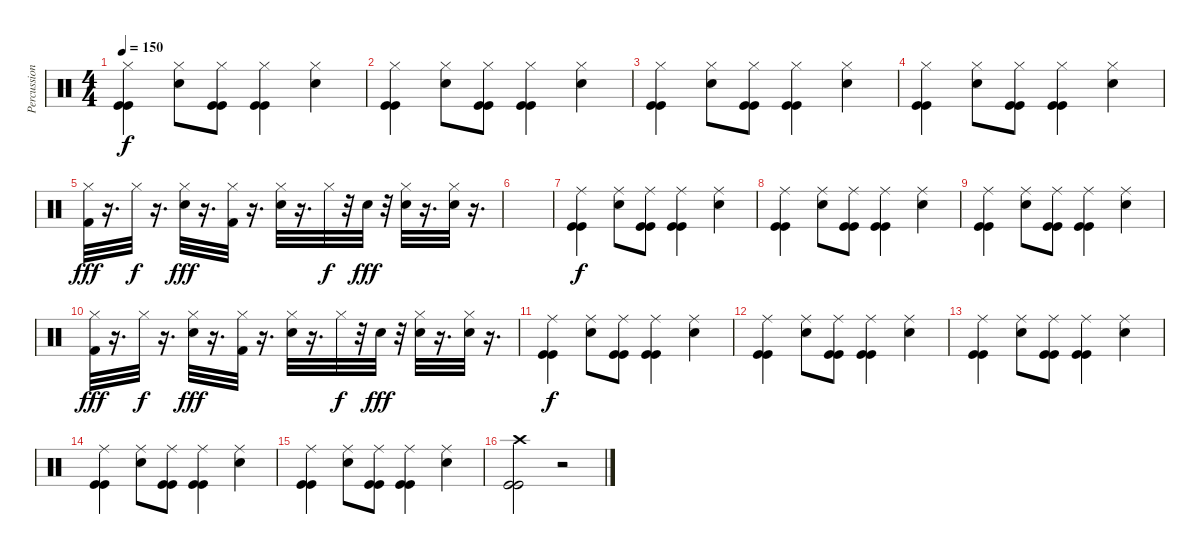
\track ("Percussion" "Percussion") {instrument percussion}
\staff {score}
\articulation defaults
\ts (4 4)
\tempo 150
\clef neutral
\ks c
("Kick (hit)" "Kick (hit)" "Hi-Hat (closed)").4{dy f} ("Electric Snare (hit)" "Hi-Hat (closed)").8 ("Kick (hit)" "Kick (hit)" "Hi-Hat (closed)").8 ("Kick (hit)" "Kick (hit)" "Hi-Hat (closed)").4 ("Electric Snare (hit)" "Hi-Hat (closed)").4 |
("Kick (hit)" "Kick (hit)" "Hi-Hat (closed)").4 ("Electric Snare (hit)" "Hi-Hat (closed)").8 ("Kick (hit)" "Kick (hit)" "Hi-Hat (closed)").8 ("Kick (hit)" "Kick (hit)" "Hi-Hat (closed)").4 ("Electric Snare (hit)" "Hi-Hat (closed)").4 |
("Kick (hit)" "Kick (hit)" "Hi-Hat (closed)").4 ("Electric Snare (hit)" "Hi-Hat (closed)").8 ("Kick (hit)" "Kick (hit)" "Hi-Hat (closed)").8 ("Kick (hit)" "Kick (hit)" "Hi-Hat (closed)").4 ("Electric Snare (hit)" "Hi-Hat (closed)").4 |
("Kick (hit)" "Kick (hit)" "Hi-Hat (closed)").4 ("Electric Snare (hit)" "Hi-Hat (closed)").8 ("Kick (hit)" "Kick (hit)" "Hi-Hat (closed)").8 ("Kick (hit)" "Kick (hit)" "Hi-Hat (closed)").4 ("Electric Snare (hit)" "Hi-Hat (closed)").4 |
("Kick (hit) 2" "Hi-Hat (closed)").32{dy fff} r.16{d} "Hi-Hat (closed)".32{dy f} r.16{d} ("Hi-Hat (closed)" "Electric Snare (hit)").32{dy fff} r.16{d} ("Kick (hit) 2" "Hi-Hat (closed)").32 r.16{d} ("Electric Snare (hit)" "Hi-Hat (closed)").32 r.16{d} "Hi-Hat (closed)".32{dy f} r.32 "Electric Snare (hit)".32{dy fff} r.32 ("Hi-Hat (closed)" "Electric Snare (hit)").32 r.16{d} ("Hi-Hat (closed)" "Electric Snare (hit)").32 r.16{d} |
|
("Kick (hit)" "Kick (hit)" "Ride (middle)").4{dy f} ("Electric Snare (hit)" "Ride (middle)").8 ("Kick (hit)" "Kick (hit)" "Ride (middle)").8 ("Kick (hit)" "Kick (hit)" "Ride (middle)").4 ("Electric Snare (hit)" "Ride (middle)").4 |
("Kick (hit)" "Kick (hit)" "Ride (middle)").4 ("Electric Snare (hit)" "Ride (middle)").8 ("Kick (hit)" "Kick (hit)" "Ride (middle)").8 ("Kick (hit)" "Kick (hit)" "Ride (middle)").4 ("Electric Snare (hit)" "Ride (middle)").4 |
("Kick (hit)" "Kick (hit)" "Ride (middle)").4 ("Electric Snare (hit)" "Ride (middle)").8 ("Kick (hit)" "Kick (hit)" "Ride (middle)").8 ("Kick (hit)" "Kick (hit)" "Ride (middle)").4 ("Electric Snare (hit)" "Ride (middle)").4 |
("Kick (hit) 2" "Hi-Hat (closed)").32{dy fff} r.16{d} "Hi-Hat (closed)".32{dy f} r.16{d} ("Hi-Hat (closed)" "Electric Snare (hit)").32{dy fff} r.16{d} ("Kick (hit) 2" "Hi-Hat (closed)").32 r.16{d} ("Electric Snare (hit)" "Hi-Hat (closed)").32 r.16{d} "Hi-Hat (closed)".32{dy f} r.32 "Electric Snare (hit)".32{dy fff} r.32 ("Hi-Hat (closed)" "Electric Snare (hit)").32 r.16{d} ("Hi-Hat (closed)" "Electric Snare (hit)").32 r.16{d} |
("Kick (hit)" "Kick (hit)" "Ride (middle)").4{dy f} ("Electric Snare (hit)" "Ride (middle)").8 ("Kick (hit)" "Kick (hit)" "Ride (middle)").8 ("Kick (hit)" "Kick (hit)" "Ride (middle)").4 ("Electric Snare (hit)" "Ride (middle)").4 |
("Kick (hit)" "Kick (hit)" "Ride (middle)").4 ("Electric Snare (hit)" "Ride (middle)").8 ("Kick (hit)" "Kick (hit)" "Ride (middle)").8 ("Kick (hit)" "Kick (hit)" "Ride (middle)").4 ("Electric Snare (hit)" "Ride (middle)").4 |
("Kick (hit)" "Kick (hit)" "Ride (middle)").4 ("Electric Snare (hit)" "Ride (middle)").8 ("Kick (hit)" "Kick (hit)" "Ride (middle)").8 ("Kick (hit)" "Kick (hit)" "Ride (middle)").4 ("Electric Snare (hit)" "Ride (middle)").4 |
("Kick (hit)" "Kick (hit)" "Ride (middle)").4 ("Electric Snare (hit)" "Ride (middle)").8 ("Kick (hit)" "Kick (hit)" "Ride (middle)").8 ("Kick (hit)" "Kick (hit)" "Ride (middle)").4 ("Electric Snare (hit)" "Ride (middle)").4 |
("Kick (hit)" "Kick (hit)" "Ride (middle)").4 ("Electric Snare (hit)" "Ride (middle)").8 ("Kick (hit)" "Kick (hit)" "Ride (middle)").8 ("Kick (hit)" "Kick (hit)" "Ride (middle)").4 ("Electric Snare (hit)" "Ride (middle)").4 |
("Crash high (hit)" "Kick (hit)" "Kick (hit)").2 r.2
